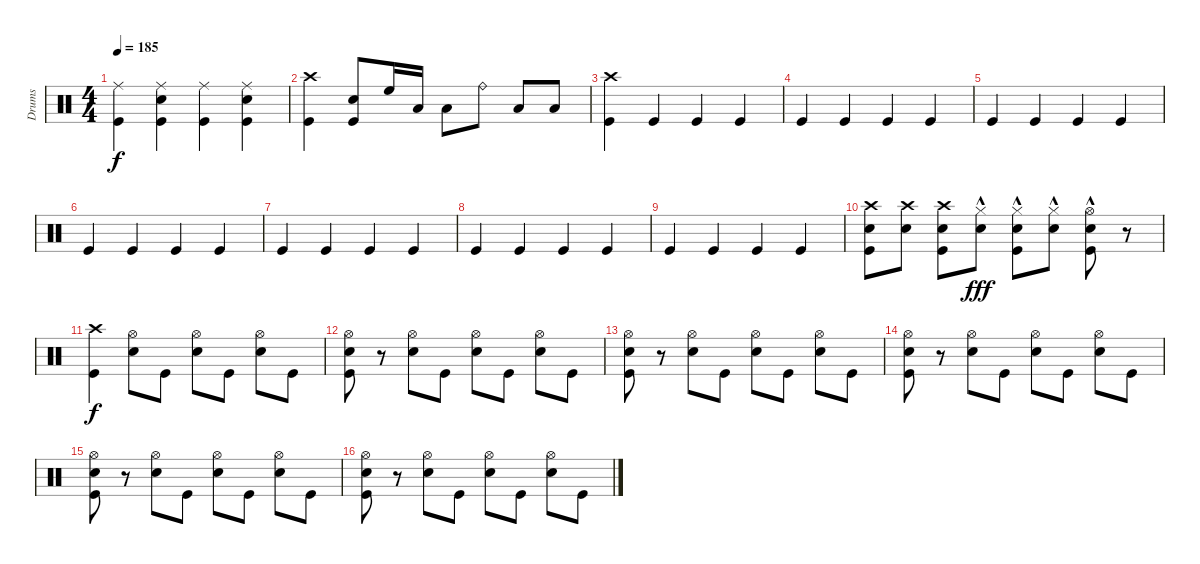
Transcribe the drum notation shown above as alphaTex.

\track ("Drums " "Drums ") {instrument percussion}
\staff {score}
\articulation defaults
\ts (4 4)
\tempo 185
\clef neutral
\ks c
("Ride (middle)" "Kick (hit)").4{dy f} ("Ride (middle)" "Snare (hit) 2" "Kick (hit)").4 ("Ride (middle)" "Kick (hit)").4 ("Ride (middle)" "Snare (hit) 2" "Kick (hit)").4 |
("Crash high (hit)" "Kick (hit)").4 ("Snare (hit) 2" "Kick (hit)").8 "High Floor Tom (hit)".16 "Low Floor Tom (hit)".16 "Low Floor Tom (hit)".8 "Ride (bell)".8 "Low Floor Tom (hit)".8 "Low Floor Tom (hit)".8 |
("Crash high (hit)" "Kick (hit)").4 "Kick (hit)".4 "Kick (hit)".4 "Kick (hit)".4 |
"Kick (hit)".4 "Kick (hit)".4 "Kick (hit)".4 "Kick (hit)".4 |
"Kick (hit)".4 "Kick (hit)".4 "Kick (hit)".4 "Kick (hit)".4 |
"Kick (hit)".4 "Kick (hit)".4 "Kick (hit)".4 "Kick (hit)".4 |
"Kick (hit)".4 "Kick (hit)".4 "Kick (hit)".4 "Kick (hit)".4 |
"Kick (hit)".4 "Kick (hit)".4 "Kick (hit)".4 "Kick (hit)".4 |
"Kick (hit)".4 "Kick (hit)".4 "Kick (hit)".4 "Kick (hit)".4 |
("Crash high (hit)" "Snare (hit) 2" "Kick (hit)").8 ("Crash high (hit)" "Snare (hit) 2").8 ("Crash high (hit)" "Snare (hit) 2" "Kick (hit)").8 ("Hi-Hat (closed)"{hac} "Snare (hit) 2"{hac}).8{dy fff} ("Hi-Hat (closed)"{hac} "Snare (hit) 2"{hac} "Kick (hit)"{hac}).8 ("Hi-Hat (closed)"{hac} "Snare (hit) 2"{hac}).8 ("Hi-Hat (open)"{hac} "Snare (hit) 2"{hac} "Kick (hit)"{hac}).8 r.8 |
("Crash high (hit)" "Kick (hit)").4{dy f} ("Hi-Hat (open)" "Snare (hit) 2").8 "Kick (hit)".8 ("Hi-Hat (open)" "Snare (hit) 2").8 "Kick (hit)".8 ("Hi-Hat (open)" "Snare (hit) 2").8 "Kick (hit)".8 |
("Hi-Hat (open)" "Snare (hit) 2" "Kick (hit)").8 r.8 ("Hi-Hat (open)" "Snare (hit) 2").8 "Kick (hit)".8 ("Hi-Hat (open)" "Snare (hit) 2").8 "Kick (hit)".8 ("Hi-Hat (open)" "Snare (hit) 2").8 "Kick (hit)".8 |
("Hi-Hat (open)" "Snare (hit) 2" "Kick (hit)").8 r.8 ("Hi-Hat (open)" "Snare (hit) 2").8 "Kick (hit)".8 ("Hi-Hat (open)" "Snare (hit) 2").8 "Kick (hit)".8 ("Hi-Hat (open)" "Snare (hit) 2").8 "Kick (hit)".8 |
("Hi-Hat (open)" "Snare (hit) 2" "Kick (hit)").8 r.8 ("Hi-Hat (open)" "Snare (hit) 2").8 "Kick (hit)".8 ("Hi-Hat (open)" "Snare (hit) 2").8 "Kick (hit)".8 ("Hi-Hat (open)" "Snare (hit) 2").8 "Kick (hit)".8 |
("Hi-Hat (open)" "Snare (hit) 2" "Kick (hit)").8 r.8 ("Hi-Hat (open)" "Snare (hit) 2").8 "Kick (hit)".8 ("Hi-Hat (open)" "Snare (hit) 2").8 "Kick (hit)".8 ("Hi-Hat (open)" "Snare (hit) 2").8 "Kick (hit)".8 |
("Hi-Hat (open)" "Snare (hit) 2" "Kick (hit)").8 r.8 ("Hi-Hat (open)" "Snare (hit) 2").8 "Kick (hit)".8 ("Hi-Hat (open)" "Snare (hit) 2").8 "Kick (hit)".8 ("Hi-Hat (open)" "Snare (hit) 2").8 "Kick (hit)".8
